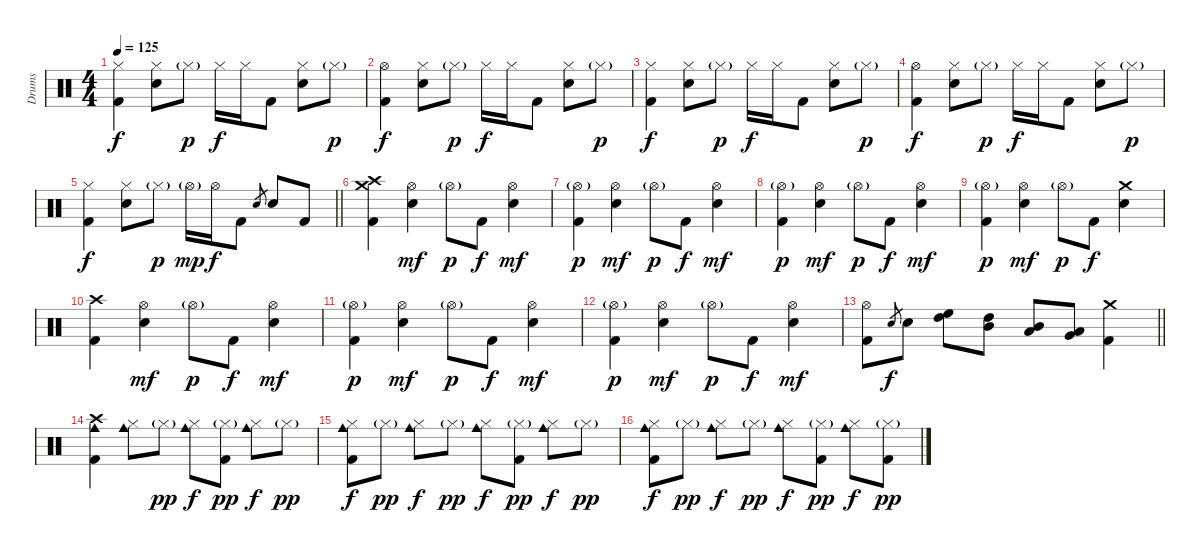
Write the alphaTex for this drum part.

\track ("Drums" "Drums") {instrument percussion}
\staff {score}
\articulation defaults
\ts (4 4)
\tempo 125
\clef neutral
\ks c
("Hi-Hat (closed)" "Kick (hit) 2").4{dy f} ("Hi-Hat (closed)" "Electric Snare (hit)").8 "Hi-Hat (closed)"{g}.8{dy p} "Hi-Hat (closed)".16{dy f} "Hi-Hat (closed)".16 "Kick (hit) 2".8 ("Hi-Hat (closed)" "Electric Snare (hit)").8 "Hi-Hat (closed)"{g}.8{dy p} |
("Hi-Hat (open)" "Kick (hit) 2").4{dy f} ("Hi-Hat (closed)" "Electric Snare (hit)").8 "Hi-Hat (closed)"{g}.8{dy p} "Hi-Hat (closed)".16{dy f} "Hi-Hat (closed)".16 "Kick (hit) 2".8 ("Hi-Hat (closed)" "Electric Snare (hit)").8 "Hi-Hat (closed)"{g}.8{dy p} |
("Hi-Hat (closed)" "Kick (hit) 2").4{dy f} ("Hi-Hat (closed)" "Electric Snare (hit)").8 "Hi-Hat (closed)"{g}.8{dy p} "Hi-Hat (closed)".16{dy f} "Hi-Hat (closed)".16 "Kick (hit) 2".8 ("Hi-Hat (closed)" "Electric Snare (hit)").8 "Hi-Hat (closed)"{g}.8{dy p} |
("Hi-Hat (open)" "Kick (hit) 2").4{dy f} ("Hi-Hat (closed)" "Electric Snare (hit)").8 "Hi-Hat (closed)"{g}.8{dy p} "Hi-Hat (closed)".16{dy f} "Hi-Hat (closed)".16 "Kick (hit) 2".8 ("Hi-Hat (closed)" "Electric Snare (hit)").8 "Hi-Hat (closed)"{g}.8{dy p} |
\barLineRight lightlight
("Hi-Hat (closed)" "Kick (hit) 2").4{dy f} ("Hi-Hat (closed)" "Electric Snare (hit)").8 "Hi-Hat (closed)"{g}.8{dy p} "Hi-Hat (open)"{g}.16{dy mp} "Hi-Hat (open)".16{dy f} "Kick (hit) 2".8 "Electric Snare (hit)".8{gr} "Electric Snare (hit)".8 "Kick (hit) 2".8 |
("Crash high (hit)" "Crash medium (hit)" "Kick (hit) 2").4 ("Hi-Hat (open)" "Electric Snare (hit)").4{dy mf} "Hi-Hat (open)"{g}.8{dy p} "Kick (hit) 2".8{dy f} ("Hi-Hat (open)" "Electric Snare (hit)").4{dy mf} |
("Hi-Hat (open)"{g} "Kick (hit) 2").4{dy p} ("Hi-Hat (open)" "Electric Snare (hit)").4{dy mf} "Hi-Hat (open)"{g}.8{dy p} "Kick (hit) 2".8{dy f} ("Hi-Hat (open)" "Electric Snare (hit)").4{dy mf} |
("Hi-Hat (open)"{g} "Kick (hit) 2").4{dy p} ("Hi-Hat (open)" "Electric Snare (hit)").4{dy mf} "Hi-Hat (open)"{g}.8{dy p} "Kick (hit) 2".8{dy f} ("Hi-Hat (open)" "Electric Snare (hit)").4{dy mf} |
("Hi-Hat (open)"{g} "Kick (hit) 2").4{dy p} ("Hi-Hat (open)" "Electric Snare (hit)").4{dy mf} "Hi-Hat (open)"{g}.8{dy p} "Kick (hit) 2".8{dy f} ("Crash medium (hit)" "Electric Snare (hit)").4 |
("Crash high (hit)" "Kick (hit) 2").4 ("Hi-Hat (open)" "Electric Snare (hit)").4{dy mf} "Hi-Hat (open)"{g}.8{dy p} "Kick (hit) 2".8{dy f} ("Hi-Hat (open)" "Electric Snare (hit)").4{dy mf} |
("Hi-Hat (open)"{g} "Kick (hit) 2").4{dy p} ("Hi-Hat (open)" "Electric Snare (hit)").4{dy mf} "Hi-Hat (open)"{g}.8{dy p} "Kick (hit) 2".8{dy f} ("Hi-Hat (open)" "Electric Snare (hit)").4{dy mf} |
("Hi-Hat (open)"{g} "Kick (hit) 2").4{dy p} ("Hi-Hat (open)" "Electric Snare (hit)").4{dy mf} "Hi-Hat (open)"{g}.8{dy p} "Kick (hit) 2".8{dy f} ("Hi-Hat (open)" "Electric Snare (hit)").4{dy mf} |
\barLineRight lightlight
("Hi-Hat (open)" "Kick (hit) 2").8 "Electric Snare (hit)".8{gr dy f} "Electric Snare (hit)".8 ("High Floor Tom (hit)" "High Tom (hit)").8 ("High Tom (hit)" "Mid Tom (hit)").8 ("Mid Tom (hit)" "Low Tom (hit)").8 ("Low Tom (hit)" "Very Low Tom (hit)").8 ("Crash medium (hit)" "Kick (hit) 2").4 |
("Crash high (hit)" "Cowbell medium (hit)" "Kick (hit) 2").4 ("Hi-Hat (closed)" "Cowbell medium (hit)").8 "Hi-Hat (closed)"{g}.8{dy pp} ("Hi-Hat (closed)" "Cowbell medium (hit)").8{dy f} ("Hi-Hat (closed)"{g} "Kick (hit) 2").8{dy pp} ("Hi-Hat (closed)" "Cowbell medium (hit)").8{dy f} "Hi-Hat (closed)"{g}.8{dy pp} |
("Hi-Hat (closed)" "Cowbell medium (hit)" "Kick (hit) 2").8{dy f} "Hi-Hat (closed)"{g}.8{dy pp} ("Hi-Hat (closed)" "Cowbell medium (hit)").8{dy f} "Hi-Hat (closed)"{g}.8{dy pp} ("Hi-Hat (closed)" "Cowbell medium (hit)").8{dy f} ("Hi-Hat (closed)"{g} "Kick (hit) 2").8{dy pp} ("Hi-Hat (closed)" "Cowbell medium (hit)").8{dy f} "Hi-Hat (closed)"{g}.8{dy pp} |
("Hi-Hat (closed)" "Cowbell medium (hit)" "Kick (hit) 2").8{dy f} "Hi-Hat (closed)"{g}.8{dy pp} ("Hi-Hat (closed)" "Cowbell medium (hit)").8{dy f} "Hi-Hat (closed)"{g}.8{dy pp} ("Hi-Hat (closed)" "Cowbell medium (hit)").8{dy f} ("Hi-Hat (closed)"{g} "Kick (hit) 2").8{dy pp} ("Hi-Hat (closed)" "Cowbell medium (hit)").8{dy f} ("Hi-Hat (closed)"{g} "Kick (hit) 2").8{dy pp}
